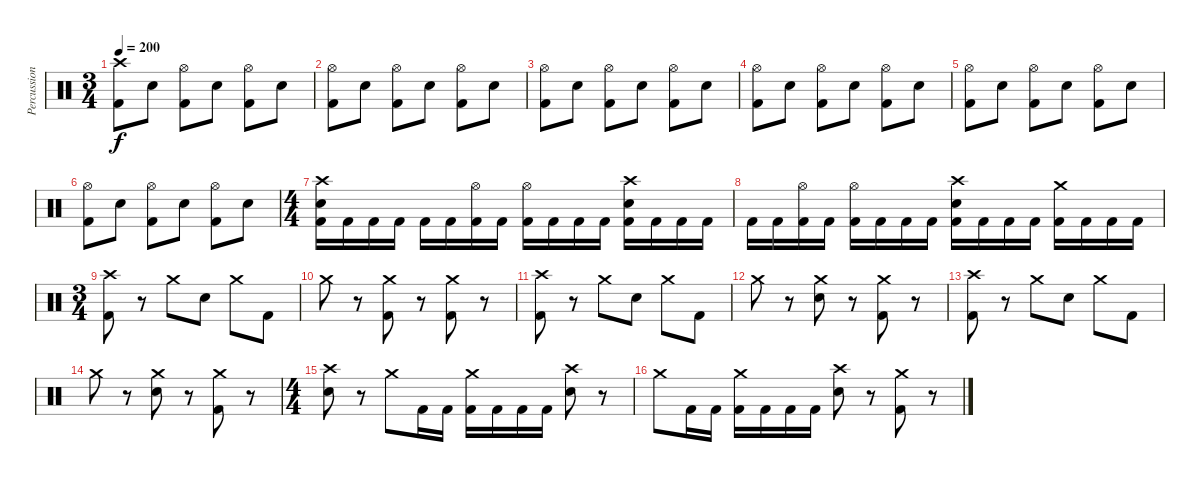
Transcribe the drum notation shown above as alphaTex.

\track ("Percussion" "Percussion") {instrument percussion}
\staff {score}
\articulation defaults
\ts (3 4)
\tempo 200
\clef neutral
\ks c
("Crash high (hit)" "Kick (hit) 2").8{dy f} "Electric Snare (hit)".8 ("Hi-Hat (open)" "Kick (hit) 2").8 "Electric Snare (hit)".8 ("Hi-Hat (open)" "Kick (hit) 2").8 "Electric Snare (hit)".8 |
("Hi-Hat (open)" "Kick (hit) 2").8 "Electric Snare (hit)".8 ("Hi-Hat (open)" "Kick (hit) 2").8 "Electric Snare (hit)".8 ("Hi-Hat (open)" "Kick (hit) 2").8 "Electric Snare (hit)".8 |
("Hi-Hat (open)" "Kick (hit) 2").8 "Electric Snare (hit)".8 ("Hi-Hat (open)" "Kick (hit) 2").8 "Electric Snare (hit)".8 ("Hi-Hat (open)" "Kick (hit) 2").8 "Electric Snare (hit)".8 |
("Hi-Hat (open)" "Kick (hit) 2").8 "Electric Snare (hit)".8 ("Hi-Hat (open)" "Kick (hit) 2").8 "Electric Snare (hit)".8 ("Hi-Hat (open)" "Kick (hit) 2").8 "Electric Snare (hit)".8 |
("Hi-Hat (open)" "Kick (hit) 2").8 "Electric Snare (hit)".8 ("Hi-Hat (open)" "Kick (hit) 2").8 "Electric Snare (hit)".8 ("Hi-Hat (open)" "Kick (hit) 2").8 "Electric Snare (hit)".8 |
("Hi-Hat (open)" "Kick (hit) 2").8 "Electric Snare (hit)".8 ("Hi-Hat (open)" "Kick (hit) 2").8 "Electric Snare (hit)".8 ("Hi-Hat (open)" "Kick (hit) 2").8 "Electric Snare (hit)".8 |
\ts (4 4)
("Crash high (hit)" "Electric Snare (hit)" "Kick (hit) 2").16 "Kick (hit) 2".16 "Kick (hit) 2".16 "Kick (hit) 2".16 "Kick (hit) 2".16 "Kick (hit) 2".16 ("Hi-Hat (open)" "Kick (hit) 2").16 "Kick (hit) 2".16 ("Hi-Hat (open)" "Kick (hit) 2").16 "Kick (hit) 2".16 "Kick (hit) 2".16 "Kick (hit) 2".16 ("Crash high (hit)" "Electric Snare (hit)" "Kick (hit) 2").16 "Kick (hit) 2".16 "Kick (hit) 2".16 "Kick (hit) 2".16 |
"Kick (hit) 2".16 "Kick (hit) 2".16 ("Hi-Hat (open)" "Kick (hit) 2").16 "Kick (hit) 2".16 ("Hi-Hat (open)" "Kick (hit) 2").16 "Kick (hit) 2".16 "Kick (hit) 2".16 "Kick (hit) 2".16 ("Crash high (hit)" "Electric Snare (hit)" "Kick (hit) 2").16 "Kick (hit) 2".16 "Kick (hit) 2".16 "Kick (hit) 2".16 ("Crash medium (hit)" "Kick (hit) 2").16 "Kick (hit) 2".16 "Kick (hit) 2".16 "Kick (hit) 2".16 |
\ts (3 4)
("Crash high (hit)" "Kick (hit) 2").8 r.8 "Crash medium (hit)".8 "Electric Snare (hit)".8 "Crash medium (hit)".8 "Kick (hit) 2".8 |
"Crash medium (hit)".8 r.8 ("Crash medium (hit)" "Kick (hit) 2").8 r.8 ("Crash medium (hit)" "Kick (hit) 2").8 r.8 |
("Crash high (hit)" "Kick (hit) 2").8 r.8 "Crash medium (hit)".8 "Electric Snare (hit)".8 "Crash medium (hit)".8 "Kick (hit) 2".8 |
"Crash medium (hit)".8 r.8 ("Crash medium (hit)" "Electric Snare (hit)").8 r.8 ("Crash medium (hit)" "Kick (hit) 2").8 r.8 |
("Crash high (hit)" "Kick (hit) 2").8 r.8 "Crash medium (hit)".8 "Electric Snare (hit)".8 "Crash medium (hit)".8 "Kick (hit) 2".8 |
"Crash medium (hit)".8 r.8 ("Crash medium (hit)" "Electric Snare (hit)").8 r.8 ("Crash medium (hit)" "Kick (hit) 2").8 r.8 |
\ts (4 4)
("Crash high (hit)" "Electric Snare (hit)").8 r.8 "Crash medium (hit)".8 "Kick (hit) 2".16 "Kick (hit) 2".16 ("Crash medium (hit)" "Kick (hit) 2").16 "Kick (hit) 2".16 "Kick (hit) 2".16 "Kick (hit) 2".16 ("Crash high (hit)" "Electric Snare (hit)").8 r.8 |
"Crash medium (hit)".8 "Kick (hit) 2".16 "Kick (hit) 2".16 ("Crash medium (hit)" "Kick (hit) 2").16 "Kick (hit) 2".16 "Kick (hit) 2".16 "Kick (hit) 2".16 ("Crash high (hit)" "Electric Snare (hit)").8 r.8 ("Crash medium (hit)" "Kick (hit) 2").8 r.8
